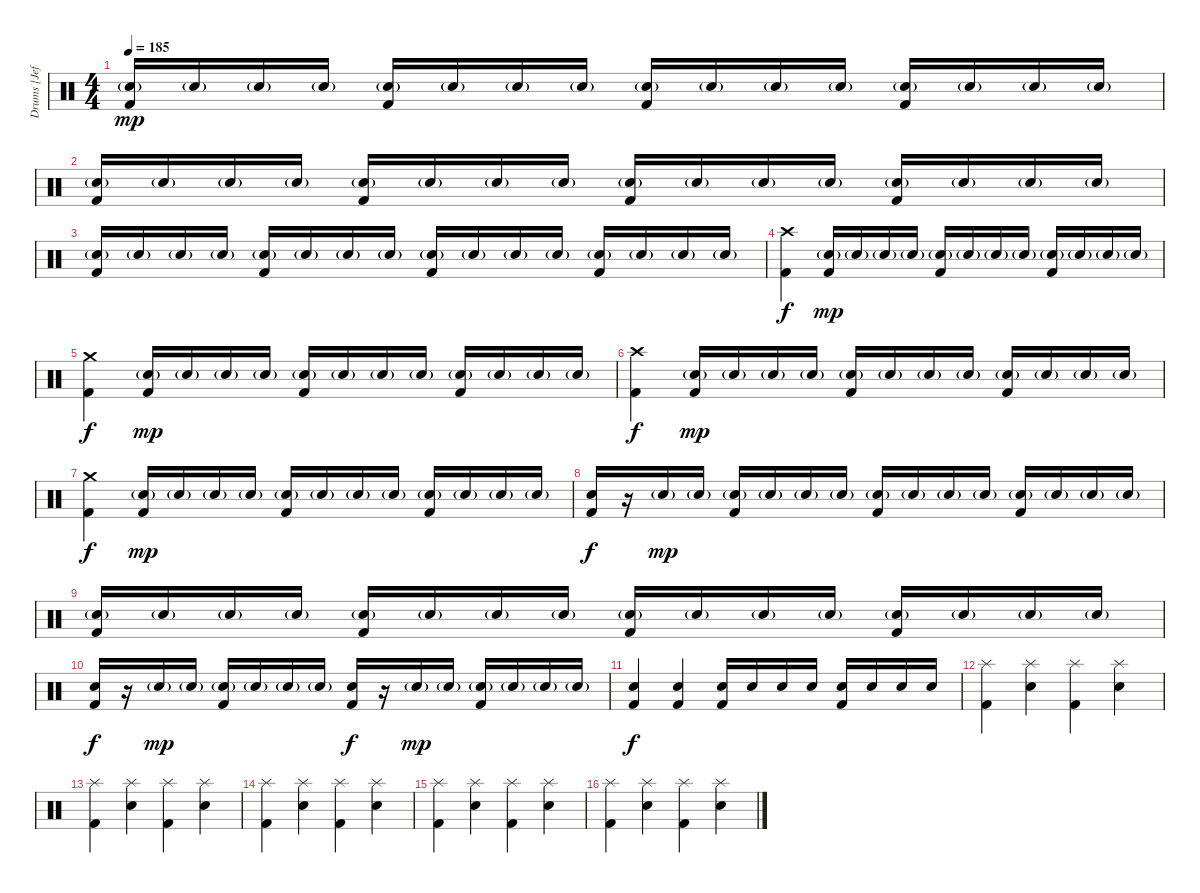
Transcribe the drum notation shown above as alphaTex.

\track ("Drums [Jeff]" "Drums [Jef") {instrument percussion}
\staff {score}
\articulation defaults
\ts (4 4)
\tempo 185
\clef neutral
\ks c
("Electric Snare (hit)"{g} "Kick (hit) 2").16{dy mp} "Electric Snare (hit)"{g}.16 "Electric Snare (hit)"{g}.16 "Electric Snare (hit)"{g}.16 ("Electric Snare (hit)"{g} "Kick (hit) 2").16 "Electric Snare (hit)"{g}.16 "Electric Snare (hit)"{g}.16 "Electric Snare (hit)"{g}.16 ("Electric Snare (hit)"{g} "Kick (hit) 2").16 "Electric Snare (hit)"{g}.16 "Electric Snare (hit)"{g}.16 "Electric Snare (hit)"{g}.16 ("Electric Snare (hit)"{g} "Kick (hit) 2").16 "Electric Snare (hit)"{g}.16 "Electric Snare (hit)"{g}.16 "Electric Snare (hit)"{g}.16 |
("Electric Snare (hit)"{g} "Kick (hit) 2").16 "Electric Snare (hit)"{g}.16 "Electric Snare (hit)"{g}.16 "Electric Snare (hit)"{g}.16 ("Electric Snare (hit)"{g} "Kick (hit) 2").16 "Electric Snare (hit)"{g}.16 "Electric Snare (hit)"{g}.16 "Electric Snare (hit)"{g}.16 ("Electric Snare (hit)"{g} "Kick (hit) 2").16 "Electric Snare (hit)"{g}.16 "Electric Snare (hit)"{g}.16 "Electric Snare (hit)"{g}.16 ("Electric Snare (hit)"{g} "Kick (hit) 2").16 "Electric Snare (hit)"{g}.16 "Electric Snare (hit)"{g}.16 "Electric Snare (hit)"{g}.16 |
("Electric Snare (hit)"{g} "Kick (hit) 2").16 "Electric Snare (hit)"{g}.16 "Electric Snare (hit)"{g}.16 "Electric Snare (hit)"{g}.16 ("Electric Snare (hit)"{g} "Kick (hit) 2").16 "Electric Snare (hit)"{g}.16 "Electric Snare (hit)"{g}.16 "Electric Snare (hit)"{g}.16 ("Electric Snare (hit)"{g} "Kick (hit) 2").16 "Electric Snare (hit)"{g}.16 "Electric Snare (hit)"{g}.16 "Electric Snare (hit)"{g}.16 ("Electric Snare (hit)"{g} "Kick (hit) 2").16 "Electric Snare (hit)"{g}.16 "Electric Snare (hit)"{g}.16 "Electric Snare (hit)"{g}.16 |
("Crash high (hit)" "Kick (hit) 2").4{dy f} ("Electric Snare (hit)"{g} "Kick (hit) 2").16{dy mp volume 10} "Electric Snare (hit)"{g}.16{volume 13} "Electric Snare (hit)"{g}.16 "Electric Snare (hit)"{g}.16 ("Electric Snare (hit)"{g} "Kick (hit) 2").16 "Electric Snare (hit)"{g}.16 "Electric Snare (hit)"{g}.16 "Electric Snare (hit)"{g}.16 ("Electric Snare (hit)"{g} "Kick (hit) 2").16 "Electric Snare (hit)"{g}.16 "Electric Snare (hit)"{g}.16 "Electric Snare (hit)"{g}.16 |
("Crash medium (hit)" "Kick (hit) 2").4{dy f} ("Electric Snare (hit)"{g} "Kick (hit) 2").16{dy mp volume 10} "Electric Snare (hit)"{g}.16{volume 13} "Electric Snare (hit)"{g}.16 "Electric Snare (hit)"{g}.16 ("Electric Snare (hit)"{g} "Kick (hit) 2").16 "Electric Snare (hit)"{g}.16 "Electric Snare (hit)"{g}.16 "Electric Snare (hit)"{g}.16 ("Electric Snare (hit)"{g} "Kick (hit) 2").16 "Electric Snare (hit)"{g}.16 "Electric Snare (hit)"{g}.16 "Electric Snare (hit)"{g}.16 |
("Crash high (hit)" "Kick (hit) 2").4{dy f} ("Electric Snare (hit)"{g} "Kick (hit) 2").16{dy mp volume 10} "Electric Snare (hit)"{g}.16{volume 13} "Electric Snare (hit)"{g}.16 "Electric Snare (hit)"{g}.16 ("Electric Snare (hit)"{g} "Kick (hit) 2").16 "Electric Snare (hit)"{g}.16 "Electric Snare (hit)"{g}.16 "Electric Snare (hit)"{g}.16 ("Electric Snare (hit)"{g} "Kick (hit) 2").16 "Electric Snare (hit)"{g}.16 "Electric Snare (hit)"{g}.16 "Electric Snare (hit)"{g}.16 |
("Crash medium (hit)" "Kick (hit) 2").4{dy f} ("Electric Snare (hit)"{g} "Kick (hit) 2").16{dy mp volume 10} "Electric Snare (hit)"{g}.16{volume 13} "Electric Snare (hit)"{g}.16 "Electric Snare (hit)"{g}.16 ("Electric Snare (hit)"{g} "Kick (hit) 2").16 "Electric Snare (hit)"{g}.16 "Electric Snare (hit)"{g}.16 "Electric Snare (hit)"{g}.16 ("Electric Snare (hit)"{g} "Kick (hit) 2").16 "Electric Snare (hit)"{g}.16 "Electric Snare (hit)"{g}.16 "Electric Snare (hit)"{g}.16 |
("Electric Snare (hit)" "Kick (hit) 2").16{dy f volume 16} r.16{volume 13} "Electric Snare (hit)"{g}.16{dy mp} "Electric Snare (hit)"{g}.16 ("Electric Snare (hit)"{g} "Kick (hit) 2").16 "Electric Snare (hit)"{g}.16 "Electric Snare (hit)"{g}.16 "Electric Snare (hit)"{g}.16 ("Electric Snare (hit)"{g} "Kick (hit) 2").16 "Electric Snare (hit)"{g}.16 "Electric Snare (hit)"{g}.16 "Electric Snare (hit)"{g}.16 ("Electric Snare (hit)"{g} "Kick (hit) 2").16 "Electric Snare (hit)"{g}.16 "Electric Snare (hit)"{g}.16 "Electric Snare (hit)"{g}.16 |
("Electric Snare (hit)"{g} "Kick (hit) 2").16 "Electric Snare (hit)"{g}.16 "Electric Snare (hit)"{g}.16 "Electric Snare (hit)"{g}.16 ("Electric Snare (hit)"{g} "Kick (hit) 2").16 "Electric Snare (hit)"{g}.16 "Electric Snare (hit)"{g}.16 "Electric Snare (hit)"{g}.16 ("Electric Snare (hit)"{g} "Kick (hit) 2").16 "Electric Snare (hit)"{g}.16 "Electric Snare (hit)"{g}.16 "Electric Snare (hit)"{g}.16 ("Electric Snare (hit)"{g} "Kick (hit) 2").16 "Electric Snare (hit)"{g}.16 "Electric Snare (hit)"{g}.16 "Electric Snare (hit)"{g}.16 |
("Electric Snare (hit)" "Kick (hit) 2").16{dy f} r.16 "Electric Snare (hit)"{g}.16{dy mp} "Electric Snare (hit)"{g}.16 ("Electric Snare (hit)"{g} "Kick (hit) 2").16 "Electric Snare (hit)"{g}.16 "Electric Snare (hit)"{g}.16 "Electric Snare (hit)"{g}.16 ("Electric Snare (hit)" "Kick (hit) 2").16{dy f} r.16 "Electric Snare (hit)"{g}.16{dy mp} "Electric Snare (hit)"{g}.16 ("Electric Snare (hit)"{g} "Kick (hit) 2").16 "Electric Snare (hit)"{g}.16 "Electric Snare (hit)"{g}.16 "Electric Snare (hit)"{g}.16 |
("Electric Snare (hit)" "Kick (hit) 2").4{dy f} ("Electric Snare (hit)" "Kick (hit) 2").4 ("Electric Snare (hit)" "Kick (hit) 2").16 "Electric Snare (hit)".16 "Electric Snare (hit)".16 "Electric Snare (hit)".16 ("Electric Snare (hit)" "Kick (hit) 2").16 "Electric Snare (hit)".16 "Electric Snare (hit)".16 "Electric Snare (hit)".16 |
("Splash (hit)" "Kick (hit) 2").4 ("Splash (hit)" "Electric Snare (hit)").4 ("Splash (hit)" "Kick (hit) 2").4 ("Splash (hit)" "Electric Snare (hit)").4 |
("Splash (hit)" "Kick (hit) 2").4 ("Splash (hit)" "Electric Snare (hit)").4 ("Splash (hit)" "Kick (hit) 2").4 ("Splash (hit)" "Electric Snare (hit)").4 |
("Splash (hit)" "Kick (hit) 2").4 ("Splash (hit)" "Electric Snare (hit)").4 ("Splash (hit)" "Kick (hit) 2").4 ("Splash (hit)" "Electric Snare (hit)").4 |
("Splash (hit)" "Kick (hit) 2").4 ("Splash (hit)" "Electric Snare (hit)").4 ("Splash (hit)" "Kick (hit) 2").4 ("Splash (hit)" "Electric Snare (hit)").4 |
("Splash (hit)" "Kick (hit) 2").4 ("Splash (hit)" "Electric Snare (hit)").4 ("Splash (hit)" "Kick (hit) 2").4 ("Splash (hit)" "Electric Snare (hit)").4
